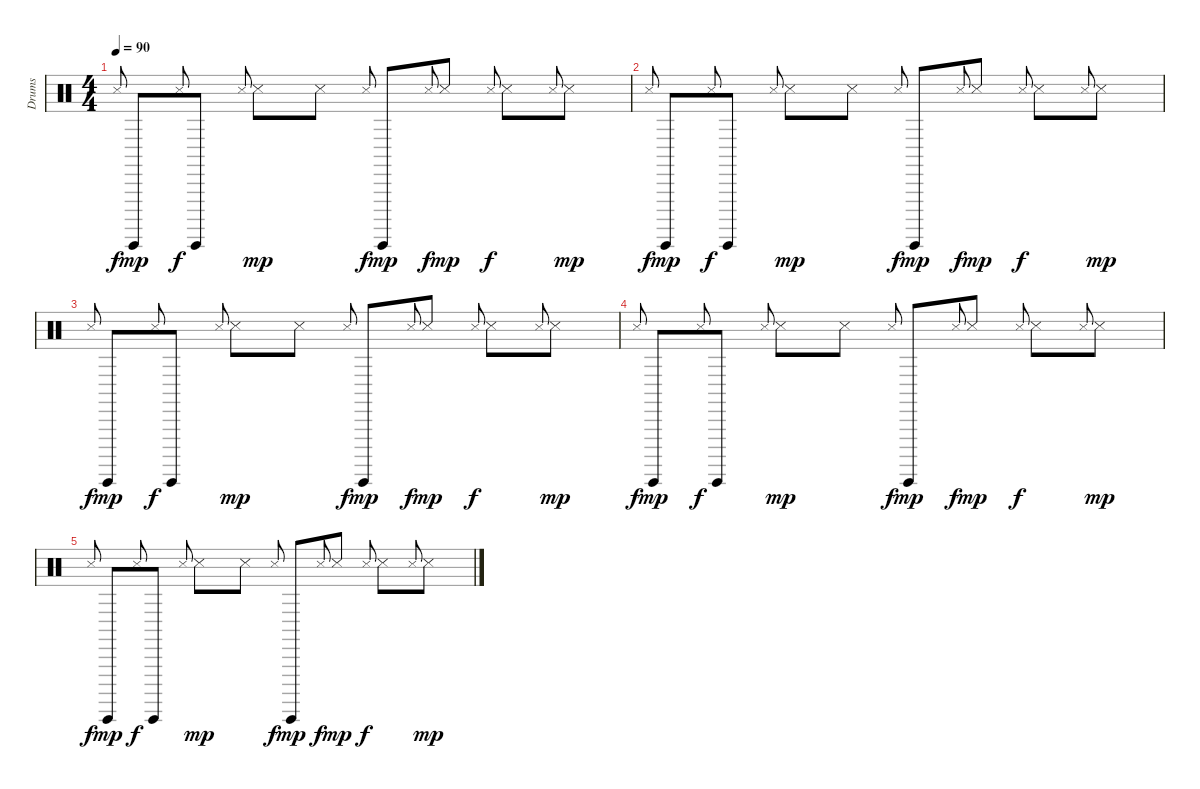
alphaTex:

\track ("Drums" "Drums") {instrument percussion}
\staff {score}
\articulation defaults
\ts (4 4)
\tempo 90
\clef neutral
\ks c "Snare (side stick) 3".8{gr onbeat dy f} "Guiro (hit)".8{dy mp} "Snare (side stick) 3".8{gr onbeat dy f} "Guiro (hit)".8 "Snare (side stick) 3".8{gr onbeat} "Snare (side stick) 3".8{dy mp} "Snare (side stick) 3".8 "Snare (side stick) 3".8{gr onbeat dy f} "Guiro (hit)".8{dy mp} "Snare (side stick) 3".8{gr onbeat dy f} "Snare (side stick) 3".8{dy mp} "Snare (side stick) 3".8{gr onbeat dy f} "Snare (side stick) 3".8 "Snare (side stick) 3".8{gr onbeat} "Snare (side stick) 3".8{dy mp}
|
"Snare (side stick) 3".8{gr onbeat dy f} "Guiro (hit)".8{dy mp} "Snare (side stick) 3".8{gr onbeat dy f} "Guiro (hit)".8 "Snare (side stick) 3".8{gr onbeat} "Snare (side stick) 3".8{dy mp} "Snare (side stick) 3".8 "Snare (side stick) 3".8{gr onbeat dy f} "Guiro (hit)".8{dy mp} "Snare (side stick) 3".8{gr onbeat dy f} "Snare (side stick) 3".8{dy mp} "Snare (side stick) 3".8{gr onbeat dy f} "Snare (side stick) 3".8 "Snare (side stick) 3".8{gr onbeat} "Snare (side stick) 3".8{dy mp} |
"Snare (side stick) 3".8{gr onbeat dy f} "Guiro (hit)".8{dy mp} "Snare (side stick) 3".8{gr onbeat dy f} "Guiro (hit)".8 "Snare (side stick) 3".8{gr onbeat} "Snare (side stick) 3".8{dy mp} "Snare (side stick) 3".8 "Snare (side stick) 3".8{gr onbeat dy f} "Guiro (hit)".8{dy mp} "Snare (side stick) 3".8{gr onbeat dy f} "Snare (side stick) 3".8{dy mp} "Snare (side stick) 3".8{gr onbeat dy f} "Snare (side stick) 3".8 "Snare (side stick) 3".8{gr onbeat} "Snare (side stick) 3".8{dy mp} |
"Snare (side stick) 3".8{gr onbeat dy f} "Guiro (hit)".8{dy mp} "Snare (side stick) 3".8{gr onbeat dy f} "Guiro (hit)".8 "Snare (side stick) 3".8{gr onbeat} "Snare (side stick) 3".8{dy mp} "Snare (side stick) 3".8 "Snare (side stick) 3".8{gr onbeat dy f} "Guiro (hit)".8{dy mp} "Snare (side stick) 3".8{gr onbeat dy f} "Snare (side stick) 3".8{dy mp} "Snare (side stick) 3".8{gr onbeat dy f} "Snare (side stick) 3".8 "Snare (side stick) 3".8{gr onbeat} "Snare (side stick) 3".8{dy mp} |
"Snare (side stick) 3".8{gr onbeat dy f} "Guiro (hit)".8{dy mp} "Snare (side stick) 3".8{gr onbeat dy f} "Guiro (hit)".8 "Snare (side stick) 3".8{gr onbeat} "Snare (side stick) 3".8{dy mp} "Snare (side stick) 3".8 "Snare (side stick) 3".8{gr onbeat dy f} "Guiro (hit)".8{dy mp} "Snare (side stick) 3".8{gr onbeat dy f} "Snare (side stick) 3".8{dy mp} "Snare (side stick) 3".8{gr onbeat dy f} "Snare (side stick) 3".8 "Snare (side stick) 3".8{gr onbeat} "Snare (side stick) 3".8{dy mp}
